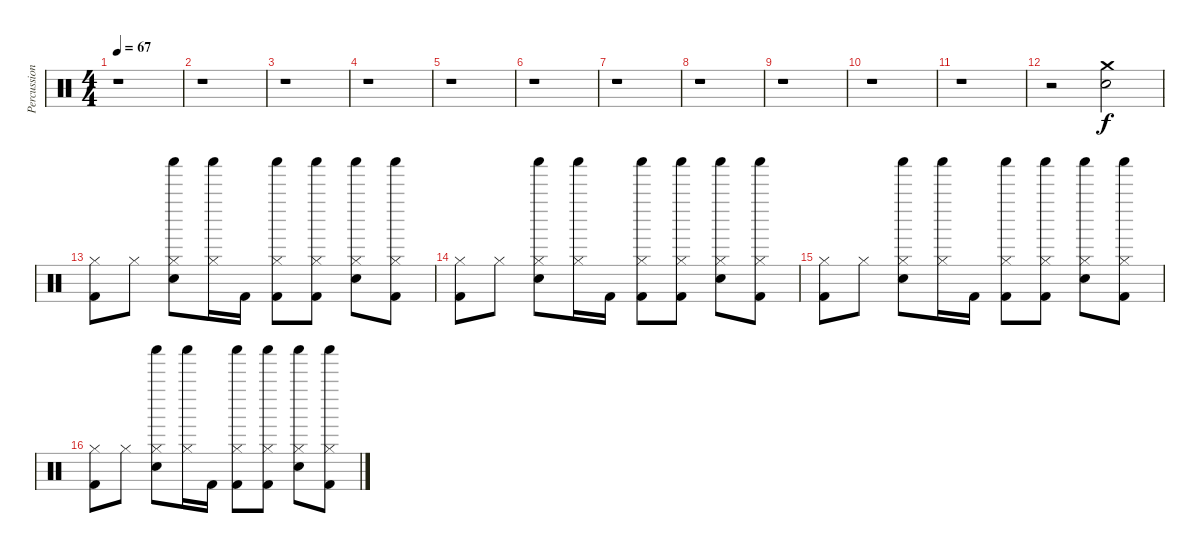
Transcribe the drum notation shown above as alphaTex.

\track ("Percussion" "Percussion") {instrument percussion}
\staff {score}
\articulation defaults
\ts (4 4)
\tempo 67
\clef neutral
\ks c
r.1{dy f} |
r.1 |
r.1 |
r.1 |
r.1 |
r.1 |
r.1 |
r.1 |
r.1 |
r.1 |
r.1 |
r.2 ("Crash medium (hit)" "Snare (hit) 2").2 |
("Kick (hit) 2" "Hi-Hat (closed)").8 "Hi-Hat (closed)".8 ("Snare (hit) 2" "Shaker (hit)" "Hi-Hat (closed)").8 ("Shaker (hit)" "Hi-Hat (closed)").16 "Kick (hit) 2".16 ("Kick (hit) 2" "Shaker (hit)" "Hi-Hat (closed)").8 ("Kick (hit) 2" "Shaker (hit)" "Hi-Hat (closed)").8 ("Snare (hit) 2" "Shaker (hit)" "Hi-Hat (closed)").8 ("Kick (hit) 2" "Shaker (hit)" "Hi-Hat (closed)").8 |
("Kick (hit) 2" "Hi-Hat (closed)").8 "Hi-Hat (closed)".8 ("Snare (hit) 2" "Shaker (hit)" "Hi-Hat (closed)").8 ("Shaker (hit)" "Hi-Hat (closed)").16 "Kick (hit) 2".16 ("Kick (hit) 2" "Shaker (hit)" "Hi-Hat (closed)").8 ("Kick (hit) 2" "Shaker (hit)" "Hi-Hat (closed)").8 ("Snare (hit) 2" "Shaker (hit)" "Hi-Hat (closed)").8 ("Kick (hit) 2" "Shaker (hit)" "Hi-Hat (closed)").8 |
("Kick (hit) 2" "Hi-Hat (closed)").8 "Hi-Hat (closed)".8 ("Snare (hit) 2" "Shaker (hit)" "Hi-Hat (closed)").8 ("Shaker (hit)" "Hi-Hat (closed)").16 "Kick (hit) 2".16 ("Kick (hit) 2" "Shaker (hit)" "Hi-Hat (closed)").8 ("Kick (hit) 2" "Shaker (hit)" "Hi-Hat (closed)").8 ("Snare (hit) 2" "Shaker (hit)" "Hi-Hat (closed)").8 ("Kick (hit) 2" "Shaker (hit)" "Hi-Hat (closed)").8 |
("Kick (hit) 2" "Hi-Hat (closed)").8 "Hi-Hat (closed)".8 ("Snare (hit) 2" "Shaker (hit)" "Hi-Hat (closed)").8 ("Shaker (hit)" "Hi-Hat (closed)").16 "Kick (hit) 2".16 ("Kick (hit) 2" "Shaker (hit)" "Hi-Hat (closed)").8 ("Kick (hit) 2" "Shaker (hit)" "Hi-Hat (closed)").8 ("Snare (hit) 2" "Shaker (hit)" "Hi-Hat (closed)").8 ("Kick (hit) 2" "Shaker (hit)" "Hi-Hat (closed)").8
